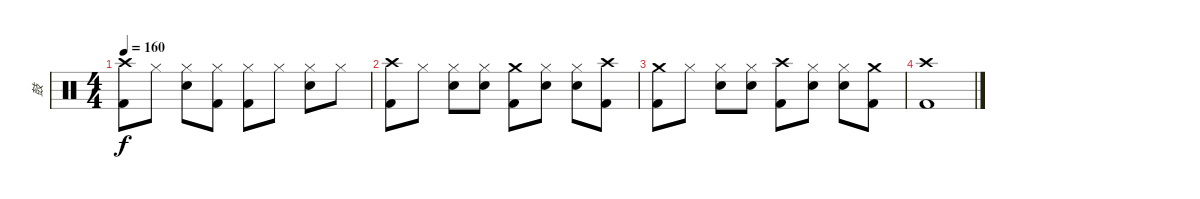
\track ("鼓" "鼓") {instrument percussion}
\staff {score}
\articulation defaults
\ts (4 4)
\tempo 160
\clef neutral
\ks c
("Crash high (hit)" "Kick (hit) 2").8{dy f} "Hi-Hat (closed)".8 ("Hi-Hat (closed)" "Snare (hit) 2").8 ("Hi-Hat (closed)" "Kick (hit) 2").8 ("Hi-Hat (closed)" "Kick (hit) 2").8 "Hi-Hat (closed)".8 ("Hi-Hat (closed)" "Snare (hit) 2").8 "Hi-Hat (closed)".8 |
("Crash high (hit)" "Kick (hit) 2").8 "Hi-Hat (closed)".8 ("Hi-Hat (closed)" "Snare (hit) 2").8 ("Hi-Hat (closed)" "Snare (hit) 2").8 ("Crash medium (hit)" "Kick (hit) 2").8 ("Hi-Hat (closed)" "Snare (hit) 2").8 ("Hi-Hat (closed)" "Snare (hit) 2").8 ("Crash high (hit)" "Kick (hit) 2").8 |
("Crash medium (hit)" "Kick (hit) 2").8 "Hi-Hat (closed)".8 ("Hi-Hat (closed)" "Snare (hit) 2").8 ("Hi-Hat (closed)" "Snare (hit) 2").8 ("Crash high (hit)" "Kick (hit) 2").8 ("Hi-Hat (closed)" "Snare (hit) 2").8 ("Hi-Hat (closed)" "Snare (hit) 2").8 ("Crash medium (hit)" "Kick (hit) 2").8 |
("Crash high (hit)" "Kick (hit) 2").1
